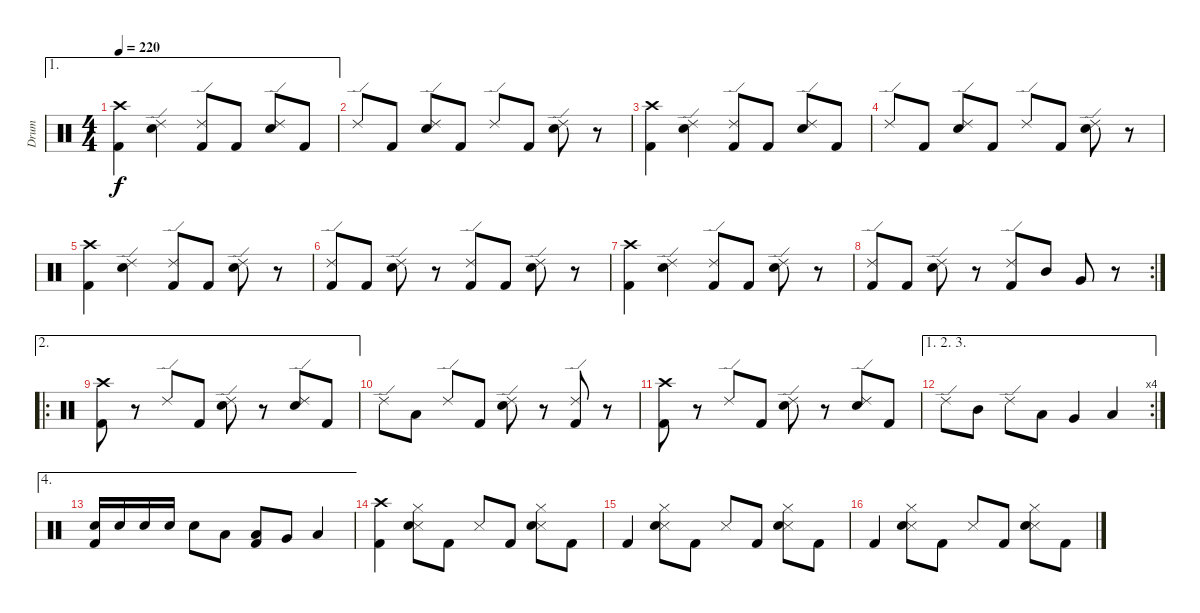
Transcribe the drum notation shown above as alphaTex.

\track ("Drum" "Drum") {instrument percussion}
\staff {score}
\articulation defaults
\ae 1
\ts (4 4)
\tempo 220
\clef neutral
\ks c
("Kick (hit) 2" "Crash high (hit)").4{dy f} ("Electric Snare (hit)" "Ride (edge) 2").4 ("Kick (hit) 2" "Ride (edge) 2").8 "Kick (hit) 2".8 ("Electric Snare (hit)" "Ride (edge) 2").8 "Kick (hit) 2".8 |
"Ride (edge) 2".8 "Kick (hit) 2".8 ("Electric Snare (hit)" "Ride (edge) 2").8 "Kick (hit) 2".8 "Ride (edge) 2".8 "Kick (hit) 2".8 ("Electric Snare (hit)" "Ride (edge) 2").8 r.8 |
("Kick (hit) 2" "Crash high (hit)").4 ("Electric Snare (hit)" "Ride (edge) 2").4 ("Kick (hit) 2" "Ride (edge) 2").8 "Kick (hit) 2".8 ("Electric Snare (hit)" "Ride (edge) 2").8 "Kick (hit) 2".8 |
"Ride (edge) 2".8 "Kick (hit) 2".8 ("Electric Snare (hit)" "Ride (edge) 2").8 "Kick (hit) 2".8 "Ride (edge) 2".8 "Kick (hit) 2".8 ("Electric Snare (hit)" "Ride (edge) 2").8 r.8 |
("Kick (hit) 2" "Crash high (hit)").4 ("Electric Snare (hit)" "Ride (edge) 2").4 ("Kick (hit) 2" "Ride (edge) 2").8 "Kick (hit) 2".8 ("Electric Snare (hit)" "Ride (edge) 2").8 r.8 |
("Kick (hit) 2" "Ride (edge) 2").8 "Kick (hit) 2".8 ("Electric Snare (hit)" "Ride (edge) 2").8 r.8 ("Kick (hit) 2" "Ride (edge) 2").8 "Kick (hit) 2".8 ("Electric Snare (hit)" "Ride (edge) 2").8 r.8 |
("Kick (hit) 2" "Crash high (hit)").4 ("Electric Snare (hit)" "Ride (edge) 2").4 ("Kick (hit) 2" "Ride (edge) 2").8 "Kick (hit) 2".8 ("Electric Snare (hit)" "Ride (edge) 2").8 r.8 |
\rc 2
("Kick (hit) 2" "Ride (edge) 2").8 "Kick (hit) 2".8 ("Electric Snare (hit)" "Ride (edge) 2").8 r.8 ("Kick (hit) 2" "Ride (edge) 2").8 "Mid Tom (hit)".8 "Very Low Tom (hit)".8 r.8 |
\ae 2
\ro
("Kick (hit) 2" "Crash high (hit)").8 r.8 "Ride (edge) 2".8 "Kick (hit) 2".8 ("Electric Snare (hit)" "Ride (edge) 2").8 r.8 ("Electric Snare (hit)" "Ride (edge) 2").8 "Kick (hit) 2".8 |
"Ride (edge) 2".8 "Low Tom (hit)".8 "Ride (edge) 2".8 "Kick (hit) 2".8 ("Electric Snare (hit)" "Ride (edge) 2").8 r.8 ("Kick (hit) 2" "Ride (edge) 2").8 r.8 |
("Kick (hit) 2" "Crash high (hit)").8 r.8 "Ride (edge) 2".8 "Kick (hit) 2".8 ("Electric Snare (hit)" "Ride (edge) 2").8 r.8 ("Electric Snare (hit)" "Ride (edge) 2").8 "Kick (hit) 2".8 |
\ae (1 2 3)
\rc 4 "Ride (edge) 2".8 "Mid Tom (hit)".8 "Ride (edge) 2".8 "Low Tom (hit)".8 "Very Low Tom (hit)".4 "Low Floor Tom (hit)".4
|
\ae 4
("Kick (hit) 2" "Electric Snare (hit)").16 "Electric Snare (hit)".16 "Electric Snare (hit)".16 "Electric Snare (hit)".16 "Electric Snare (hit)".8 "Low Tom (hit)".8 ("Kick (hit) 2" "Low Tom (hit)").8 "Very Low Tom (hit)".8 "Low Floor Tom (hit)".4 |
("Kick (hit) 2" "Crash high (hit)").4 ("Snare (side stick) 3" "Electric Snare (hit)" "Hi-Hat (closed)").8 "Kick (hit) 2".8 "Snare (side stick) 3".8 "Kick (hit) 2".8 ("Snare (side stick) 3" "Electric Snare (hit)" "Hi-Hat (closed)").8 "Kick (hit) 2".8 |
"Kick (hit) 2".4 ("Snare (side stick) 3" "Electric Snare (hit)" "Hi-Hat (closed)").8 "Kick (hit) 2".8 "Snare (side stick) 3".8 "Kick (hit) 2".8 ("Snare (side stick) 3" "Electric Snare (hit)" "Hi-Hat (closed)").8 "Kick (hit) 2".8 |
"Kick (hit) 2".4 ("Snare (side stick) 3" "Electric Snare (hit)" "Hi-Hat (closed)").8 "Kick (hit) 2".8 "Snare (side stick) 3".8 "Kick (hit) 2".8 ("Snare (side stick) 3" "Electric Snare (hit)" "Hi-Hat (closed)").8 "Kick (hit) 2".8
